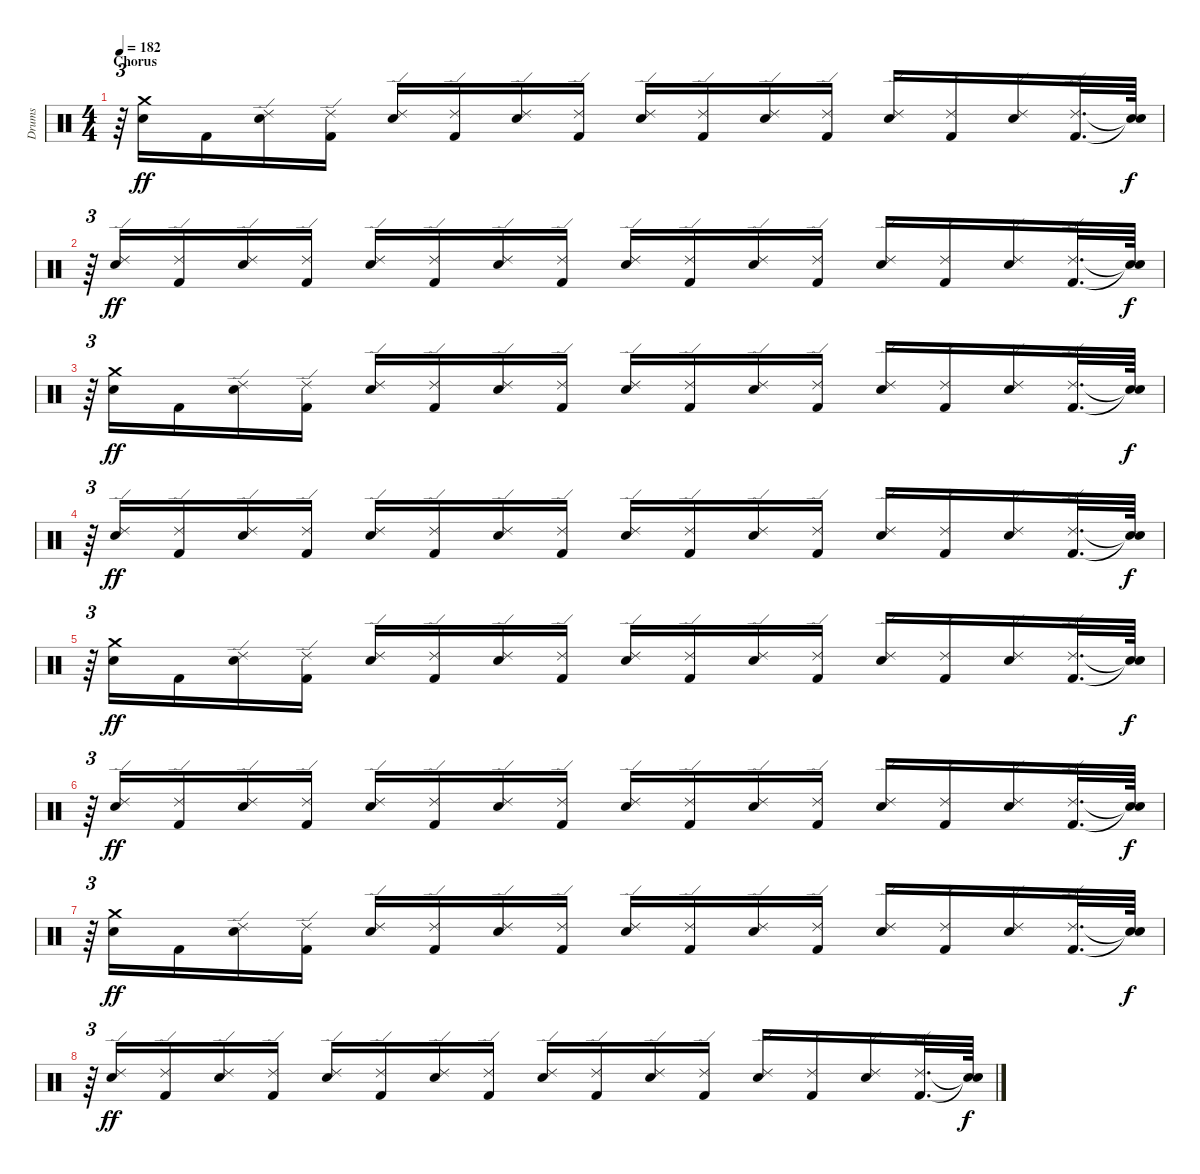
\track ("Drums" "Drums") {instrument percussion}
\staff {score}
\articulation defaults
\ts (4 4)
\section ("" "Chorus")
\tempo 182
\clef neutral
\ks c
r.64{tu (3 2) dy f} ("Crash medium (hit)" "Snare (hit) 2").16{dy ff} "Kick (hit) 2".16 ("Snare (hit) 2" "Ride (edge) 2").16 ("Kick (hit) 2" "Ride (edge) 2").16 ("Snare (hit) 2" "Ride (edge) 2").16 ("Kick (hit) 2" "Ride (edge) 2").16 ("Snare (hit) 2" "Ride (edge) 2").16 ("Kick (hit) 2" "Ride (edge) 2").16 ("Snare (hit) 2" "Ride (edge) 2").16 ("Kick (hit) 2" "Ride (edge) 2").16 ("Snare (hit) 2" "Ride (edge) 2").16 ("Kick (hit) 2" "Ride (edge) 2").16 ("Snare (hit) 2" "Ride (edge) 2").16 ("Kick (hit) 2" "Ride (edge) 2").16 ("Snare (hit) 2" "Ride (edge) 2").16 ("Kick (hit) 2" "Ride (edge) 2").32{d} ("Snare (hit)"{t} "Snare (hit)"{t}).64{dy f} |
r.64{tu (3 2)} ("Snare (hit) 2" "Ride (edge) 2").16{dy ff} ("Kick (hit) 2" "Ride (edge) 2").16 ("Snare (hit) 2" "Ride (edge) 2").16 ("Kick (hit) 2" "Ride (edge) 2").16 ("Snare (hit) 2" "Ride (edge) 2").16 ("Kick (hit) 2" "Ride (edge) 2").16 ("Snare (hit) 2" "Ride (edge) 2").16 ("Kick (hit) 2" "Ride (edge) 2").16 ("Snare (hit) 2" "Ride (edge) 2").16 ("Kick (hit) 2" "Ride (edge) 2").16 ("Snare (hit) 2" "Ride (edge) 2").16 ("Kick (hit) 2" "Ride (edge) 2").16 ("Snare (hit) 2" "Ride (edge) 2").16 ("Kick (hit) 2" "Ride (edge) 2").16 ("Snare (hit) 2" "Ride (edge) 2").16 ("Kick (hit) 2" "Ride (edge) 2").32{d} ("Snare (hit)"{t} "Snare (hit)"{t}).64{dy f} |
r.64{tu (3 2)} ("Crash medium (hit)" "Snare (hit) 2").16{dy ff} "Kick (hit) 2".16 ("Snare (hit) 2" "Ride (edge) 2").16 ("Kick (hit) 2" "Ride (edge) 2").16 ("Snare (hit) 2" "Ride (edge) 2").16 ("Kick (hit) 2" "Ride (edge) 2").16 ("Snare (hit) 2" "Ride (edge) 2").16 ("Kick (hit) 2" "Ride (edge) 2").16 ("Snare (hit) 2" "Ride (edge) 2").16 ("Kick (hit) 2" "Ride (edge) 2").16 ("Snare (hit) 2" "Ride (edge) 2").16 ("Kick (hit) 2" "Ride (edge) 2").16 ("Snare (hit) 2" "Ride (edge) 2").16 ("Kick (hit) 2" "Ride (edge) 2").16 ("Snare (hit) 2" "Ride (edge) 2").16 ("Kick (hit) 2" "Ride (edge) 2").32{d} ("Snare (hit)"{t} "Snare (hit)"{t}).64{dy f} |
r.64{tu (3 2)} ("Snare (hit) 2" "Ride (edge) 2").16{dy ff} ("Kick (hit) 2" "Ride (edge) 2").16 ("Snare (hit) 2" "Ride (edge) 2").16 ("Kick (hit) 2" "Ride (edge) 2").16 ("Snare (hit) 2" "Ride (edge) 2").16 ("Kick (hit) 2" "Ride (edge) 2").16 ("Snare (hit) 2" "Ride (edge) 2").16 ("Kick (hit) 2" "Ride (edge) 2").16 ("Snare (hit) 2" "Ride (edge) 2").16 ("Kick (hit) 2" "Ride (edge) 2").16 ("Snare (hit) 2" "Ride (edge) 2").16 ("Kick (hit) 2" "Ride (edge) 2").16 ("Snare (hit) 2" "Ride (edge) 2").16 ("Kick (hit) 2" "Ride (edge) 2").16 ("Snare (hit) 2" "Ride (edge) 2").16 ("Kick (hit) 2" "Ride (edge) 2").32{d} ("Snare (hit)"{t} "Snare (hit)"{t}).64{dy f} |
r.64{tu (3 2)} ("Crash medium (hit)" "Snare (hit) 2").16{dy ff} "Kick (hit) 2".16 ("Snare (hit) 2" "Ride (edge) 2").16 ("Kick (hit) 2" "Ride (edge) 2").16 ("Snare (hit) 2" "Ride (edge) 2").16 ("Kick (hit) 2" "Ride (edge) 2").16 ("Snare (hit) 2" "Ride (edge) 2").16 ("Kick (hit) 2" "Ride (edge) 2").16 ("Snare (hit) 2" "Ride (edge) 2").16 ("Kick (hit) 2" "Ride (edge) 2").16 ("Snare (hit) 2" "Ride (edge) 2").16 ("Kick (hit) 2" "Ride (edge) 2").16 ("Snare (hit) 2" "Ride (edge) 2").16 ("Kick (hit) 2" "Ride (edge) 2").16 ("Snare (hit) 2" "Ride (edge) 2").16 ("Kick (hit) 2" "Ride (edge) 2").32{d} ("Snare (hit)"{t} "Snare (hit)"{t}).64{dy f} |
r.64{tu (3 2)} ("Snare (hit) 2" "Ride (edge) 2").16{dy ff} ("Kick (hit) 2" "Ride (edge) 2").16 ("Snare (hit) 2" "Ride (edge) 2").16 ("Kick (hit) 2" "Ride (edge) 2").16 ("Snare (hit) 2" "Ride (edge) 2").16 ("Kick (hit) 2" "Ride (edge) 2").16 ("Snare (hit) 2" "Ride (edge) 2").16 ("Kick (hit) 2" "Ride (edge) 2").16 ("Snare (hit) 2" "Ride (edge) 2").16 ("Kick (hit) 2" "Ride (edge) 2").16 ("Snare (hit) 2" "Ride (edge) 2").16 ("Kick (hit) 2" "Ride (edge) 2").16 ("Snare (hit) 2" "Ride (edge) 2").16 ("Kick (hit) 2" "Ride (edge) 2").16 ("Snare (hit) 2" "Ride (edge) 2").16 ("Kick (hit) 2" "Ride (edge) 2").32{d} ("Snare (hit)"{t} "Snare (hit)"{t}).64{dy f} |
r.64{tu (3 2)} ("Crash medium (hit)" "Snare (hit) 2").16{dy ff} "Kick (hit) 2".16 ("Snare (hit) 2" "Ride (edge) 2").16 ("Kick (hit) 2" "Ride (edge) 2").16 ("Snare (hit) 2" "Ride (edge) 2").16 ("Kick (hit) 2" "Ride (edge) 2").16 ("Snare (hit) 2" "Ride (edge) 2").16 ("Kick (hit) 2" "Ride (edge) 2").16 ("Snare (hit) 2" "Ride (edge) 2").16 ("Kick (hit) 2" "Ride (edge) 2").16 ("Snare (hit) 2" "Ride (edge) 2").16 ("Kick (hit) 2" "Ride (edge) 2").16 ("Snare (hit) 2" "Ride (edge) 2").16 ("Kick (hit) 2" "Ride (edge) 2").16 ("Snare (hit) 2" "Ride (edge) 2").16 ("Kick (hit) 2" "Ride (edge) 2").32{d} ("Snare (hit)"{t} "Snare (hit)"{t}).64{dy f} |
r.64{tu (3 2)} ("Snare (hit) 2" "Ride (edge) 2").16{dy ff} ("Kick (hit) 2" "Ride (edge) 2").16 ("Snare (hit) 2" "Ride (edge) 2").16 ("Kick (hit) 2" "Ride (edge) 2").16 ("Snare (hit) 2" "Ride (edge) 2").16 ("Kick (hit) 2" "Ride (edge) 2").16 ("Snare (hit) 2" "Ride (edge) 2").16 ("Kick (hit) 2" "Ride (edge) 2").16 ("Snare (hit) 2" "Ride (edge) 2").16 ("Kick (hit) 2" "Ride (edge) 2").16 ("Snare (hit) 2" "Ride (edge) 2").16 ("Kick (hit) 2" "Ride (edge) 2").16 ("Snare (hit) 2" "Ride (edge) 2").16 ("Kick (hit) 2" "Ride (edge) 2").16 ("Snare (hit) 2" "Ride (edge) 2").16 ("Kick (hit) 2" "Ride (edge) 2").32{d} ("Snare (hit)"{t} "Snare (hit)"{t}).64{dy f}
